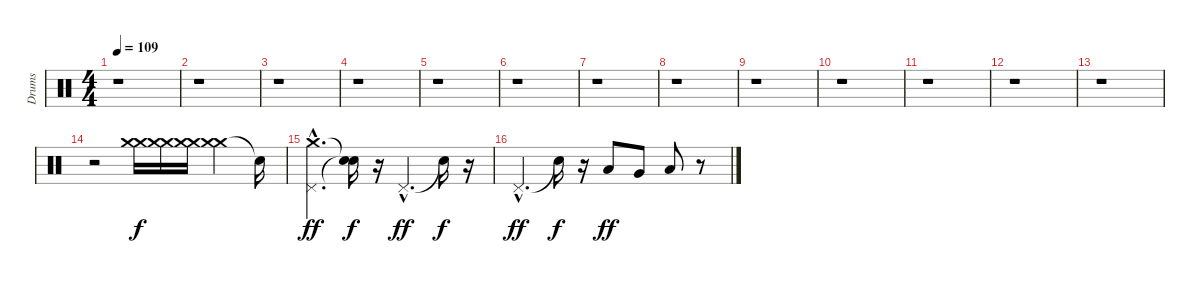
\track ("Drums" "Drums") {instrument percussion}
\staff {score}
\articulation defaults
\ts (4 4)
\tempo 109
\clef neutral
\ks c
r.1{dy f} |
r.1 |
r.1 |
r.1 |
r.1 |
r.1 |
r.1 |
r.1 |
r.1 |
r.1 |
r.1 |
r.1 |
r.1 |
r.2 ("Crash medium (hit)" "Crash medium (hit)").16{volume 3} ("Crash medium (hit)" "Crash medium (hit)").16{volume 7} ("Crash medium (hit)" "Crash medium (hit)").16{volume 11} ("Crash medium (hit)" "Crash medium (hit)").4{volume 14} "Snare (hit)"{t}.16 |
("Pedal Hi-Hat (hit)"{hac} "Crash medium (hit)"{hac}).4{d dy ff} ("Snare (hit)"{t} "Snare (hit)"{t}).16{dy f} r.16 "Pedal Hi-Hat (hit)"{hac}.4{d dy ff} "Snare (hit)"{t}.16{dy f} r.16 |
"Pedal Hi-Hat (hit)"{hac}.4{d dy ff} "Snare (hit)"{t}.16{dy f} r.16 "Low Tom (hit)".8{dy ff} "Very Low Tom (hit)".8 "Low Floor Tom (hit)".8 r.8
